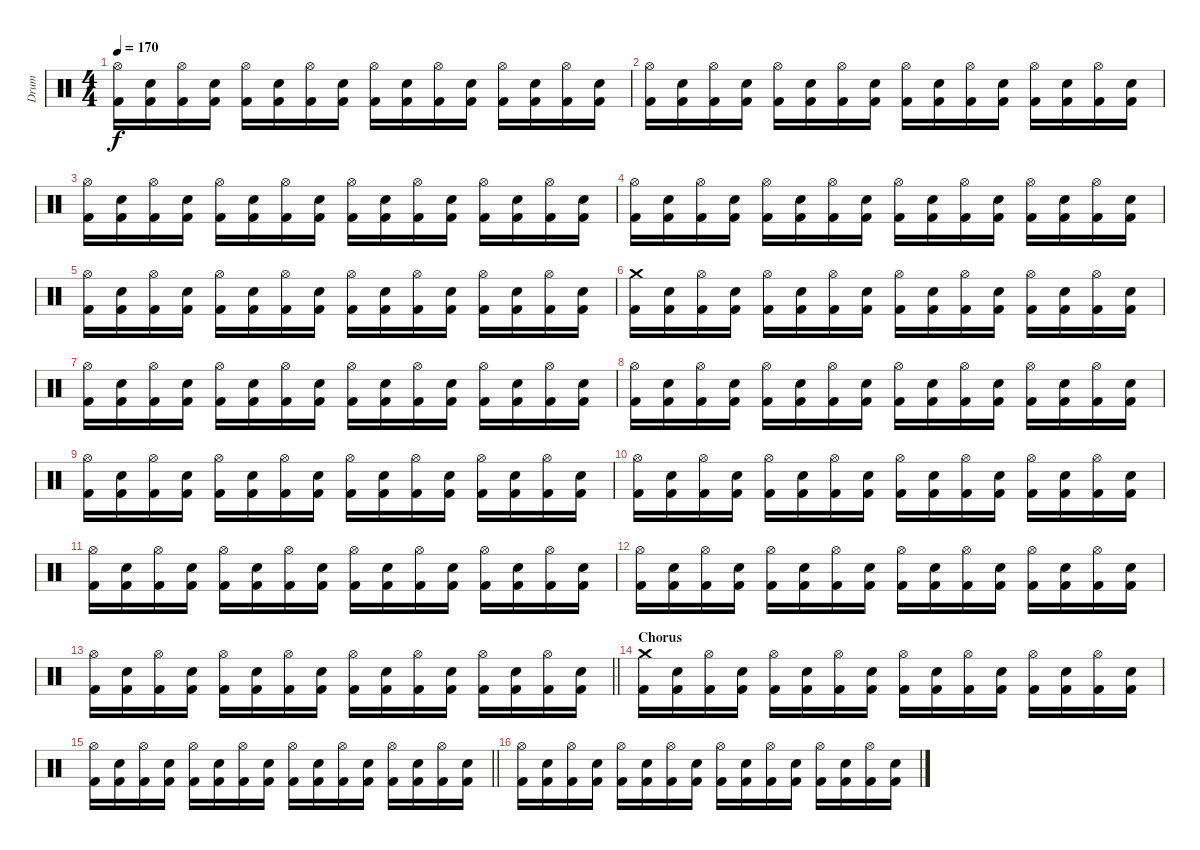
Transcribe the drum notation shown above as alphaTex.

\track ("Drum" "Drum") {instrument percussion}
\staff {score}
\articulation defaults
\ts (4 4)
\tempo 170
\clef neutral
\ks c
("Hi-Hat (open)" "Kick (hit) 2").16{dy f} ("Snare (hit) 2" "Kick (hit) 2").16 ("Hi-Hat (open)" "Kick (hit) 2").16 ("Snare (hit) 2" "Kick (hit) 2").16 ("Hi-Hat (open)" "Kick (hit) 2").16 ("Snare (hit) 2" "Kick (hit) 2").16 ("Hi-Hat (open)" "Kick (hit) 2").16 ("Snare (hit) 2" "Kick (hit) 2").16 ("Hi-Hat (open)" "Kick (hit) 2").16 ("Snare (hit) 2" "Kick (hit) 2").16 ("Hi-Hat (open)" "Kick (hit) 2").16 ("Snare (hit) 2" "Kick (hit) 2").16 ("Hi-Hat (open)" "Kick (hit) 2").16 ("Snare (hit) 2" "Kick (hit) 2").16 ("Hi-Hat (open)" "Kick (hit) 2").16 ("Snare (hit) 2" "Kick (hit) 2").16 |
("Hi-Hat (open)" "Kick (hit) 2").16 ("Snare (hit) 2" "Kick (hit) 2").16 ("Hi-Hat (open)" "Kick (hit) 2").16 ("Snare (hit) 2" "Kick (hit) 2").16 ("Hi-Hat (open)" "Kick (hit) 2").16 ("Snare (hit) 2" "Kick (hit) 2").16 ("Hi-Hat (open)" "Kick (hit) 2").16 ("Snare (hit) 2" "Kick (hit) 2").16 ("Hi-Hat (open)" "Kick (hit) 2").16 ("Snare (hit) 2" "Kick (hit) 2").16 ("Hi-Hat (open)" "Kick (hit) 2").16 ("Snare (hit) 2" "Kick (hit) 2").16 ("Hi-Hat (open)" "Kick (hit) 2").16 ("Snare (hit) 2" "Kick (hit) 2").16 ("Hi-Hat (open)" "Kick (hit) 2").16 ("Snare (hit) 2" "Kick (hit) 2").16 |
("Hi-Hat (open)" "Kick (hit) 2").16 ("Snare (hit) 2" "Kick (hit) 2").16 ("Hi-Hat (open)" "Kick (hit) 2").16 ("Snare (hit) 2" "Kick (hit) 2").16 ("Hi-Hat (open)" "Kick (hit) 2").16 ("Snare (hit) 2" "Kick (hit) 2").16 ("Hi-Hat (open)" "Kick (hit) 2").16 ("Snare (hit) 2" "Kick (hit) 2").16 ("Hi-Hat (open)" "Kick (hit) 2").16 ("Snare (hit) 2" "Kick (hit) 2").16 ("Hi-Hat (open)" "Kick (hit) 2").16 ("Snare (hit) 2" "Kick (hit) 2").16 ("Hi-Hat (open)" "Kick (hit) 2").16 ("Snare (hit) 2" "Kick (hit) 2").16 ("Hi-Hat (open)" "Kick (hit) 2").16 ("Snare (hit) 2" "Kick (hit) 2").16 |
("Hi-Hat (open)" "Kick (hit) 2").16 ("Snare (hit) 2" "Kick (hit) 2").16 ("Hi-Hat (open)" "Kick (hit) 2").16 ("Snare (hit) 2" "Kick (hit) 2").16 ("Hi-Hat (open)" "Kick (hit) 2").16 ("Snare (hit) 2" "Kick (hit) 2").16 ("Hi-Hat (open)" "Kick (hit) 2").16 ("Snare (hit) 2" "Kick (hit) 2").16 ("Hi-Hat (open)" "Kick (hit) 2").16 ("Snare (hit) 2" "Kick (hit) 2").16 ("Hi-Hat (open)" "Kick (hit) 2").16 ("Snare (hit) 2" "Kick (hit) 2").16 ("Hi-Hat (open)" "Kick (hit) 2").16 ("Snare (hit) 2" "Kick (hit) 2").16 ("Hi-Hat (open)" "Kick (hit) 2").16 ("Snare (hit) 2" "Kick (hit) 2").16 |
("Hi-Hat (open)" "Kick (hit) 2").16 ("Snare (hit) 2" "Kick (hit) 2").16 ("Hi-Hat (open)" "Kick (hit) 2").16 ("Snare (hit) 2" "Kick (hit) 2").16 ("Hi-Hat (open)" "Kick (hit) 2").16 ("Snare (hit) 2" "Kick (hit) 2").16 ("Hi-Hat (open)" "Kick (hit) 2").16 ("Snare (hit) 2" "Kick (hit) 2").16 ("Hi-Hat (open)" "Kick (hit) 2").16 ("Snare (hit) 2" "Kick (hit) 2").16 ("Hi-Hat (open)" "Kick (hit) 2").16 ("Snare (hit) 2" "Kick (hit) 2").16 ("Hi-Hat (open)" "Kick (hit) 2").16 ("Snare (hit) 2" "Kick (hit) 2").16 ("Hi-Hat (open)" "Kick (hit) 2").16 ("Snare (hit) 2" "Kick (hit) 2").16 |
("Crash medium (hit)" "Kick (hit) 2").16 ("Snare (hit) 2" "Kick (hit) 2").16 ("Hi-Hat (open)" "Kick (hit) 2").16 ("Snare (hit) 2" "Kick (hit) 2").16 ("Hi-Hat (open)" "Kick (hit) 2").16 ("Snare (hit) 2" "Kick (hit) 2").16 ("Hi-Hat (open)" "Kick (hit) 2").16 ("Snare (hit) 2" "Kick (hit) 2").16 ("Hi-Hat (open)" "Kick (hit) 2").16 ("Snare (hit) 2" "Kick (hit) 2").16 ("Hi-Hat (open)" "Kick (hit) 2").16 ("Snare (hit) 2" "Kick (hit) 2").16 ("Hi-Hat (open)" "Kick (hit) 2").16 ("Snare (hit) 2" "Kick (hit) 2").16 ("Hi-Hat (open)" "Kick (hit) 2").16 ("Snare (hit) 2" "Kick (hit) 2").16 |
("Hi-Hat (open)" "Kick (hit) 2").16 ("Snare (hit) 2" "Kick (hit) 2").16 ("Hi-Hat (open)" "Kick (hit) 2").16 ("Snare (hit) 2" "Kick (hit) 2").16 ("Hi-Hat (open)" "Kick (hit) 2").16 ("Snare (hit) 2" "Kick (hit) 2").16 ("Hi-Hat (open)" "Kick (hit) 2").16 ("Snare (hit) 2" "Kick (hit) 2").16 ("Hi-Hat (open)" "Kick (hit) 2").16 ("Snare (hit) 2" "Kick (hit) 2").16 ("Hi-Hat (open)" "Kick (hit) 2").16 ("Snare (hit) 2" "Kick (hit) 2").16 ("Hi-Hat (open)" "Kick (hit) 2").16 ("Snare (hit) 2" "Kick (hit) 2").16 ("Hi-Hat (open)" "Kick (hit) 2").16 ("Snare (hit) 2" "Kick (hit) 2").16 |
("Hi-Hat (open)" "Kick (hit) 2").16 ("Snare (hit) 2" "Kick (hit) 2").16 ("Hi-Hat (open)" "Kick (hit) 2").16 ("Snare (hit) 2" "Kick (hit) 2").16 ("Hi-Hat (open)" "Kick (hit) 2").16 ("Snare (hit) 2" "Kick (hit) 2").16 ("Hi-Hat (open)" "Kick (hit) 2").16 ("Snare (hit) 2" "Kick (hit) 2").16 ("Hi-Hat (open)" "Kick (hit) 2").16 ("Snare (hit) 2" "Kick (hit) 2").16 ("Hi-Hat (open)" "Kick (hit) 2").16 ("Snare (hit) 2" "Kick (hit) 2").16 ("Hi-Hat (open)" "Kick (hit) 2").16 ("Snare (hit) 2" "Kick (hit) 2").16 ("Hi-Hat (open)" "Kick (hit) 2").16 ("Snare (hit) 2" "Kick (hit) 2").16 |
("Hi-Hat (open)" "Kick (hit) 2").16 ("Snare (hit) 2" "Kick (hit) 2").16 ("Hi-Hat (open)" "Kick (hit) 2").16 ("Snare (hit) 2" "Kick (hit) 2").16 ("Hi-Hat (open)" "Kick (hit) 2").16 ("Snare (hit) 2" "Kick (hit) 2").16 ("Hi-Hat (open)" "Kick (hit) 2").16 ("Snare (hit) 2" "Kick (hit) 2").16 ("Hi-Hat (open)" "Kick (hit) 2").16 ("Snare (hit) 2" "Kick (hit) 2").16 ("Hi-Hat (open)" "Kick (hit) 2").16 ("Snare (hit) 2" "Kick (hit) 2").16 ("Hi-Hat (open)" "Kick (hit) 2").16 ("Snare (hit) 2" "Kick (hit) 2").16 ("Hi-Hat (open)" "Kick (hit) 2").16 ("Snare (hit) 2" "Kick (hit) 2").16 |
("Hi-Hat (open)" "Kick (hit) 2").16 ("Snare (hit) 2" "Kick (hit) 2").16 ("Hi-Hat (open)" "Kick (hit) 2").16 ("Snare (hit) 2" "Kick (hit) 2").16 ("Hi-Hat (open)" "Kick (hit) 2").16 ("Snare (hit) 2" "Kick (hit) 2").16 ("Hi-Hat (open)" "Kick (hit) 2").16 ("Snare (hit) 2" "Kick (hit) 2").16 ("Hi-Hat (open)" "Kick (hit) 2").16 ("Snare (hit) 2" "Kick (hit) 2").16 ("Hi-Hat (open)" "Kick (hit) 2").16 ("Snare (hit) 2" "Kick (hit) 2").16 ("Hi-Hat (open)" "Kick (hit) 2").16 ("Snare (hit) 2" "Kick (hit) 2").16 ("Hi-Hat (open)" "Kick (hit) 2").16 ("Snare (hit) 2" "Kick (hit) 2").16 |
("Hi-Hat (open)" "Kick (hit) 2").16 ("Snare (hit) 2" "Kick (hit) 2").16 ("Hi-Hat (open)" "Kick (hit) 2").16 ("Snare (hit) 2" "Kick (hit) 2").16 ("Hi-Hat (open)" "Kick (hit) 2").16 ("Snare (hit) 2" "Kick (hit) 2").16 ("Hi-Hat (open)" "Kick (hit) 2").16 ("Snare (hit) 2" "Kick (hit) 2").16 ("Hi-Hat (open)" "Kick (hit) 2").16 ("Snare (hit) 2" "Kick (hit) 2").16 ("Hi-Hat (open)" "Kick (hit) 2").16 ("Snare (hit) 2" "Kick (hit) 2").16 ("Hi-Hat (open)" "Kick (hit) 2").16 ("Snare (hit) 2" "Kick (hit) 2").16 ("Hi-Hat (open)" "Kick (hit) 2").16 ("Snare (hit) 2" "Kick (hit) 2").16 |
("Hi-Hat (open)" "Kick (hit) 2").16 ("Snare (hit) 2" "Kick (hit) 2").16 ("Hi-Hat (open)" "Kick (hit) 2").16 ("Snare (hit) 2" "Kick (hit) 2").16 ("Hi-Hat (open)" "Kick (hit) 2").16 ("Snare (hit) 2" "Kick (hit) 2").16 ("Hi-Hat (open)" "Kick (hit) 2").16 ("Snare (hit) 2" "Kick (hit) 2").16 ("Hi-Hat (open)" "Kick (hit) 2").16 ("Snare (hit) 2" "Kick (hit) 2").16 ("Hi-Hat (open)" "Kick (hit) 2").16 ("Snare (hit) 2" "Kick (hit) 2").16 ("Hi-Hat (open)" "Kick (hit) 2").16 ("Snare (hit) 2" "Kick (hit) 2").16 ("Hi-Hat (open)" "Kick (hit) 2").16 ("Snare (hit) 2" "Kick (hit) 2").16 |
\barLineRight lightlight
("Hi-Hat (open)" "Kick (hit) 2").16 ("Snare (hit) 2" "Kick (hit) 2").16 ("Hi-Hat (open)" "Kick (hit) 2").16 ("Snare (hit) 2" "Kick (hit) 2").16 ("Hi-Hat (open)" "Kick (hit) 2").16 ("Snare (hit) 2" "Kick (hit) 2").16 ("Hi-Hat (open)" "Kick (hit) 2").16 ("Snare (hit) 2" "Kick (hit) 2").16 ("Hi-Hat (open)" "Kick (hit) 2").16 ("Snare (hit) 2" "Kick (hit) 2").16 ("Hi-Hat (open)" "Kick (hit) 2").16 ("Snare (hit) 2" "Kick (hit) 2").16 ("Hi-Hat (open)" "Kick (hit) 2").16 ("Snare (hit) 2" "Kick (hit) 2").16 ("Hi-Hat (open)" "Kick (hit) 2").16 ("Snare (hit) 2" "Kick (hit) 2").16 |
\section ("" "Chorus")
("Crash medium (hit)" "Kick (hit) 2").16 ("Snare (hit) 2" "Kick (hit) 2").16 ("Hi-Hat (open)" "Kick (hit) 2").16 ("Snare (hit) 2" "Kick (hit) 2").16 ("Hi-Hat (open)" "Kick (hit) 2").16 ("Snare (hit) 2" "Kick (hit) 2").16 ("Hi-Hat (open)" "Kick (hit) 2").16 ("Snare (hit) 2" "Kick (hit) 2").16 ("Hi-Hat (open)" "Kick (hit) 2").16 ("Snare (hit) 2" "Kick (hit) 2").16 ("Hi-Hat (open)" "Kick (hit) 2").16 ("Snare (hit) 2" "Kick (hit) 2").16 ("Hi-Hat (open)" "Kick (hit) 2").16 ("Snare (hit) 2" "Kick (hit) 2").16 ("Hi-Hat (open)" "Kick (hit) 2").16 ("Snare (hit) 2" "Kick (hit) 2").16 |
\barLineRight lightlight
("Hi-Hat (open)" "Kick (hit) 2").16 ("Snare (hit) 2" "Kick (hit) 2").16 ("Hi-Hat (open)" "Kick (hit) 2").16 ("Snare (hit) 2" "Kick (hit) 2").16 ("Hi-Hat (open)" "Kick (hit) 2").16 ("Snare (hit) 2" "Kick (hit) 2").16 ("Hi-Hat (open)" "Kick (hit) 2").16 ("Snare (hit) 2" "Kick (hit) 2").16 ("Hi-Hat (open)" "Kick (hit) 2").16 ("Snare (hit) 2" "Kick (hit) 2").16 ("Hi-Hat (open)" "Kick (hit) 2").16 ("Snare (hit) 2" "Kick (hit) 2").16 ("Hi-Hat (open)" "Kick (hit) 2").16 ("Snare (hit) 2" "Kick (hit) 2").16 ("Hi-Hat (open)" "Kick (hit) 2").16 ("Snare (hit) 2" "Kick (hit) 2").16 |
("Hi-Hat (open)" "Kick (hit) 2").16 ("Snare (hit) 2" "Kick (hit) 2").16 ("Hi-Hat (open)" "Kick (hit) 2").16 ("Snare (hit) 2" "Kick (hit) 2").16 ("Hi-Hat (open)" "Kick (hit) 2").16 ("Snare (hit) 2" "Kick (hit) 2").16 ("Hi-Hat (open)" "Kick (hit) 2").16 ("Snare (hit) 2" "Kick (hit) 2").16 ("Hi-Hat (open)" "Kick (hit) 2").16 ("Snare (hit) 2" "Kick (hit) 2").16 ("Hi-Hat (open)" "Kick (hit) 2").16 ("Snare (hit) 2" "Kick (hit) 2").16 ("Hi-Hat (open)" "Kick (hit) 2").16 ("Snare (hit) 2" "Kick (hit) 2").16 ("Hi-Hat (open)" "Kick (hit) 2").16 ("Snare (hit) 2" "Kick (hit) 2").16
